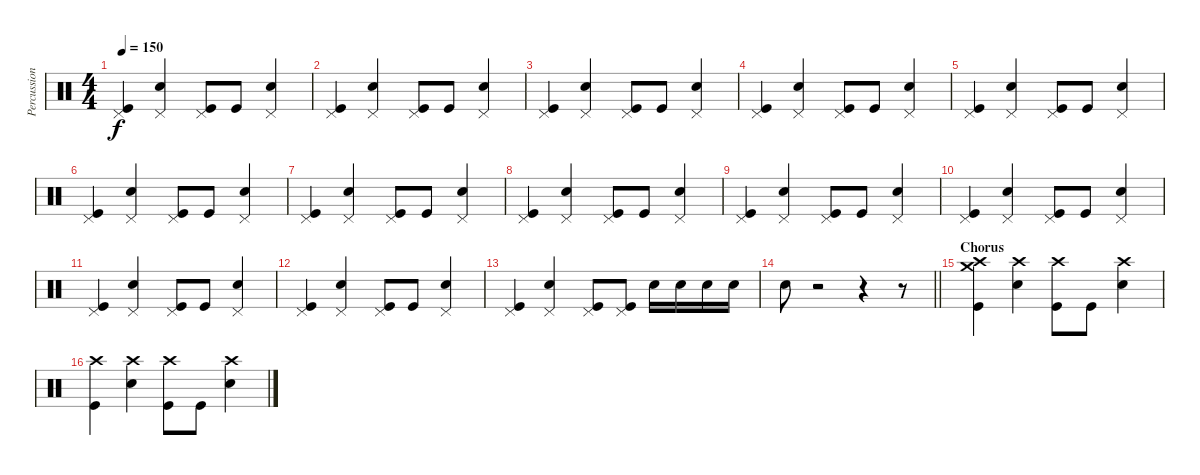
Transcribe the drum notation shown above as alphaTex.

\track ("Percussion" "Percussion") {instrument percussion}
\staff {score}
\articulation defaults
\ts (4 4)
\tempo 150
\clef neutral
\ks c
("Pedal Hi-Hat (hit)" "Kick (hit)").4{dy f} ("Pedal Hi-Hat (hit)" "Electric Snare (hit)").4 ("Pedal Hi-Hat (hit)" "Kick (hit)").8 "Kick (hit)".8 ("Pedal Hi-Hat (hit)" "Electric Snare (hit)").4 |
("Pedal Hi-Hat (hit)" "Kick (hit)").4 ("Pedal Hi-Hat (hit)" "Electric Snare (hit)").4 ("Pedal Hi-Hat (hit)" "Kick (hit)").8 "Kick (hit)".8 ("Pedal Hi-Hat (hit)" "Electric Snare (hit)").4 |
("Pedal Hi-Hat (hit)" "Kick (hit)").4 ("Pedal Hi-Hat (hit)" "Electric Snare (hit)").4 ("Pedal Hi-Hat (hit)" "Kick (hit)").8 "Kick (hit)".8 ("Pedal Hi-Hat (hit)" "Electric Snare (hit)").4 |
("Pedal Hi-Hat (hit)" "Kick (hit)").4 ("Pedal Hi-Hat (hit)" "Electric Snare (hit)").4 ("Pedal Hi-Hat (hit)" "Kick (hit)").8 "Kick (hit)".8 ("Pedal Hi-Hat (hit)" "Electric Snare (hit)").4 |
("Pedal Hi-Hat (hit)" "Kick (hit)").4 ("Pedal Hi-Hat (hit)" "Electric Snare (hit)").4 ("Pedal Hi-Hat (hit)" "Kick (hit)").8 "Kick (hit)".8 ("Pedal Hi-Hat (hit)" "Electric Snare (hit)").4 |
("Pedal Hi-Hat (hit)" "Kick (hit)").4 ("Pedal Hi-Hat (hit)" "Electric Snare (hit)").4 ("Pedal Hi-Hat (hit)" "Kick (hit)").8 "Kick (hit)".8 ("Pedal Hi-Hat (hit)" "Electric Snare (hit)").4 |
("Pedal Hi-Hat (hit)" "Kick (hit)").4 ("Pedal Hi-Hat (hit)" "Electric Snare (hit)").4 ("Pedal Hi-Hat (hit)" "Kick (hit)").8 "Kick (hit)".8 ("Pedal Hi-Hat (hit)" "Electric Snare (hit)").4 |
("Pedal Hi-Hat (hit)" "Kick (hit)").4 ("Pedal Hi-Hat (hit)" "Electric Snare (hit)").4 ("Pedal Hi-Hat (hit)" "Kick (hit)").8 "Kick (hit)".8 ("Pedal Hi-Hat (hit)" "Electric Snare (hit)").4 |
("Pedal Hi-Hat (hit)" "Kick (hit)").4 ("Pedal Hi-Hat (hit)" "Electric Snare (hit)").4 ("Pedal Hi-Hat (hit)" "Kick (hit)").8 "Kick (hit)".8 ("Pedal Hi-Hat (hit)" "Electric Snare (hit)").4 |
("Pedal Hi-Hat (hit)" "Kick (hit)").4 ("Pedal Hi-Hat (hit)" "Electric Snare (hit)").4 ("Pedal Hi-Hat (hit)" "Kick (hit)").8 "Kick (hit)".8 ("Pedal Hi-Hat (hit)" "Electric Snare (hit)").4 |
("Pedal Hi-Hat (hit)" "Kick (hit)").4 ("Pedal Hi-Hat (hit)" "Electric Snare (hit)").4 ("Pedal Hi-Hat (hit)" "Kick (hit)").8 "Kick (hit)".8 ("Pedal Hi-Hat (hit)" "Electric Snare (hit)").4 |
("Pedal Hi-Hat (hit)" "Kick (hit)").4 ("Pedal Hi-Hat (hit)" "Electric Snare (hit)").4 ("Pedal Hi-Hat (hit)" "Kick (hit)").8 "Kick (hit)".8 ("Pedal Hi-Hat (hit)" "Electric Snare (hit)").4 |
("Pedal Hi-Hat (hit)" "Kick (hit)").4 ("Pedal Hi-Hat (hit)" "Electric Snare (hit)").4 ("Pedal Hi-Hat (hit)" "Kick (hit)").8 ("Pedal Hi-Hat (hit)" "Kick (hit)").8 "Electric Snare (hit)".16 "Electric Snare (hit)".16 "Electric Snare (hit)".16 "Electric Snare (hit)".16 |
\barLineRight lightlight "Electric Snare (hit)".8
r.2 r.4 r.8 |
\section ("" "Chorus")
("Crash high (hit)" "Crash medium (hit)" "Kick (hit)").4 ("Crash high (hit)" "Electric Snare (hit)").4 ("Crash high (hit)" "Kick (hit)").8 "Kick (hit)".8 ("Crash high (hit)" "Electric Snare (hit)").4 |
("Crash high (hit)" "Kick (hit)").4 ("Crash high (hit)" "Electric Snare (hit)").4 ("Crash high (hit)" "Kick (hit)").8 "Kick (hit)".8 ("Crash high (hit)" "Electric Snare (hit)").4
